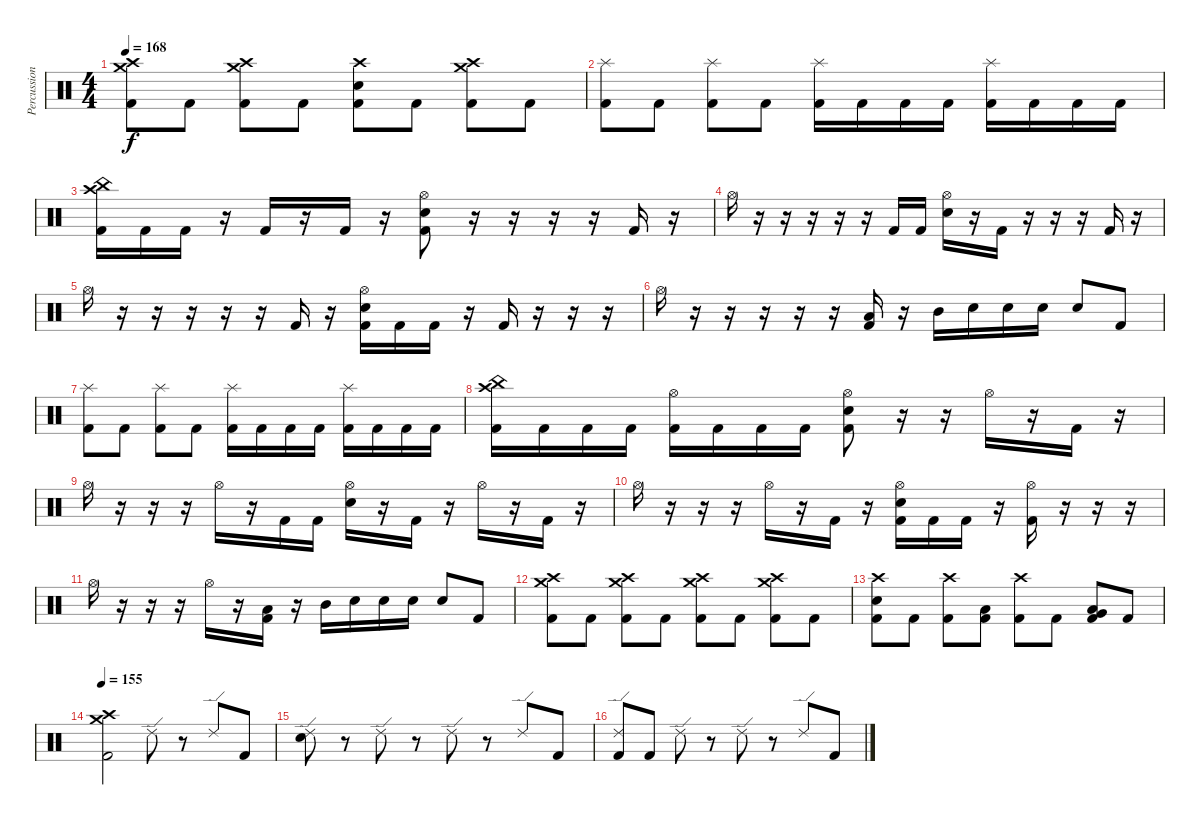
\track ("Percussion" "Percussion") {instrument percussion}
\staff {score}
\articulation defaults
\ts (4 4)
\tempo 168
\clef neutral
\ks c
("Crash high (hit)" "Crash medium (hit)" "Kick (hit) 2").8{dy f} "Kick (hit) 2".8 ("Crash high (hit)" "Crash medium (hit)" "Kick (hit) 2").8 "Kick (hit) 2".8 ("Crash high (hit)" "Electric Snare (hit)" "Kick (hit) 2").8 "Kick (hit) 2".8 ("Crash high (hit)" "Crash medium (hit)" "Kick (hit) 2").8 "Kick (hit) 2".8 |
("Splash (hit)" "Kick (hit) 2").8 "Kick (hit) 2".8 ("Splash (hit)" "Kick (hit) 2").8 "Kick (hit) 2".8 ("Splash (hit)" "Kick (hit) 2").16 "Kick (hit) 2".16 "Kick (hit) 2".16 "Kick (hit) 2".16 ("Splash (hit)" "Kick (hit) 2").16 "Kick (hit) 2".16 "Kick (hit) 2".16 "Kick (hit) 2".16 |
("China (hit)" "Crash high (hit)" "Kick (hit) 2").16 "Kick (hit) 2".16 "Kick (hit) 2".16 r.16 "Kick (hit) 2".16 r.16 "Kick (hit) 2".16 r.16 ("Hi-Hat (open)" "Electric Snare (hit)" "Kick (hit) 2").8 r.16 r.16 r.16 r.16 "Kick (hit) 2".16 r.16 |
"Hi-Hat (open)".16 r.16 r.16 r.16 r.16 r.16 "Kick (hit) 2".16 "Kick (hit) 2".16 ("Hi-Hat (open)" "Electric Snare (hit)").16 r.16 "Kick (hit) 2".16 r.16 r.16 r.16 "Kick (hit) 2".16 r.16 |
"Hi-Hat (open)".16 r.16 r.16 r.16 r.16 r.16 "Kick (hit) 2".16 r.16 ("Hi-Hat (open)" "Electric Snare (hit)" "Kick (hit) 2").16 "Kick (hit) 2".16 "Kick (hit) 2".16 r.16 "Kick (hit) 2".16 r.16 r.16 r.16 |
"Hi-Hat (open)".16 r.16 r.16 r.16 r.16 r.16 ("Low Tom (hit)" "Kick (hit) 2").16 r.16 "Mid Tom (hit)".16 "Electric Snare (hit)".16 "Electric Snare (hit)".16 "Electric Snare (hit)".16 "Electric Snare (hit)".8 "Kick (hit) 2".8 |
("Splash (hit)" "Kick (hit) 2").8 "Kick (hit) 2".8 ("Splash (hit)" "Kick (hit) 2").8 "Kick (hit) 2".8 ("Splash (hit)" "Kick (hit) 2").16 "Kick (hit) 2".16 "Kick (hit) 2".16 "Kick (hit) 2".16 ("Splash (hit)" "Kick (hit) 2").16 "Kick (hit) 2".16 "Kick (hit) 2".16 "Kick (hit) 2".16 |
("China (hit)" "Crash high (hit)" "Kick (hit) 2").16 "Kick (hit) 2".16 "Kick (hit) 2".16 "Kick (hit) 2".16 ("Hi-Hat (open)" "Kick (hit) 2").16 "Kick (hit) 2".16 "Kick (hit) 2".16 "Kick (hit) 2".16 ("Hi-Hat (open)" "Electric Snare (hit)" "Kick (hit) 2").8 r.16 r.16 "Hi-Hat (open)".16 r.16 "Kick (hit) 2".16 r.16 |
"Hi-Hat (open)".16 r.16 r.16 r.16 "Hi-Hat (open)".16 r.16 "Kick (hit) 2".16 "Kick (hit) 2".16 ("Hi-Hat (open)" "Electric Snare (hit)").16 r.16 "Kick (hit) 2".16 r.16 "Hi-Hat (open)".16 r.16 "Kick (hit) 2".16 r.16 |
"Hi-Hat (open)".16 r.16 r.16 r.16 "Hi-Hat (open)".16 r.16 "Kick (hit) 2".16 r.16 ("Hi-Hat (open)" "Electric Snare (hit)" "Kick (hit) 2").16 "Kick (hit) 2".16 "Kick (hit) 2".16 r.16 ("Hi-Hat (open)" "Kick (hit) 2").16 r.16 r.16 r.16 |
"Hi-Hat (open)".16 r.16 r.16 r.16 "Hi-Hat (open)".16 r.16 ("Low Tom (hit)" "Kick (hit) 2").16 r.16 "Mid Tom (hit)".16 "Electric Snare (hit)".16 "Electric Snare (hit)".16 "Electric Snare (hit)".16 "Electric Snare (hit)".8 "Kick (hit) 2".8 |
("Crash high (hit)" "Crash medium (hit)" "Kick (hit) 2").8 "Kick (hit) 2".8 ("Crash high (hit)" "Crash medium (hit)" "Kick (hit) 2").8 "Kick (hit) 2".8 ("Crash high (hit)" "Crash medium (hit)" "Kick (hit) 2").8 "Kick (hit) 2".8 ("Crash high (hit)" "Crash medium (hit)" "Kick (hit) 2").8 "Kick (hit) 2".8 |
("Crash high (hit)" "Electric Snare (hit)" "Kick (hit) 2").8 "Kick (hit) 2".8 ("Crash high (hit)" "Kick (hit) 2").8 ("Low Tom (hit)" "Kick (hit) 2").8 ("Crash high (hit)" "Kick (hit) 2").8 "Kick (hit) 2".8 ("Low Tom (hit)" "Very Low Tom (hit)" "Kick (hit) 2").8 "Kick (hit) 2".8 |
\tempo 155
("Crash medium (hit)" "Crash high (hit)" "Kick (hit) 2").2 "Ride (edge) 2".8 r.8 "Ride (edge) 2".8 "Kick (hit) 2".8 |
("Ride (edge) 2" "Electric Snare (hit)").8 r.8 "Ride (edge) 2".8 r.8 "Ride (edge) 2".8 r.8 "Ride (edge) 2".8 "Kick (hit) 2".8 |
("Ride (edge) 2" "Kick (hit) 2").8 "Kick (hit) 2".8 "Ride (edge) 2".8 r.8 "Ride (edge) 2".8 r.8 "Ride (edge) 2".8 "Kick (hit) 2".8
